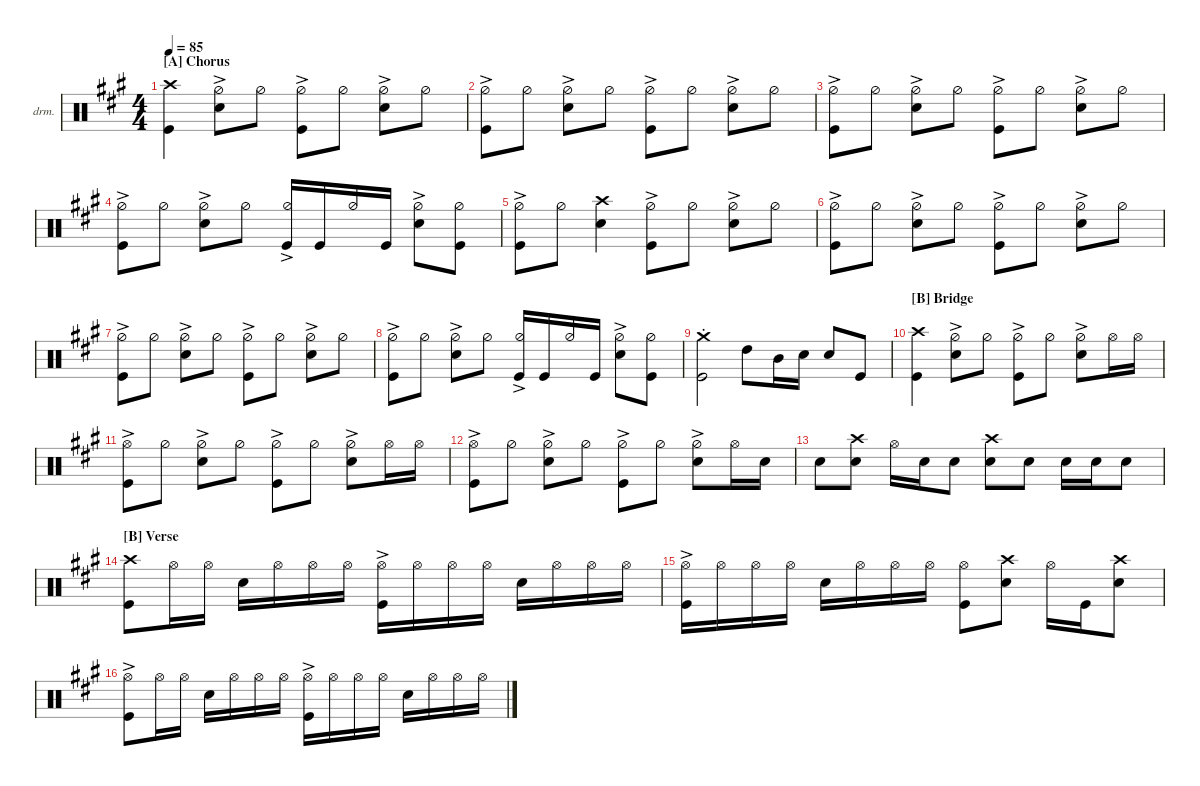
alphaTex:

\defaultSystemsLayout 4
\hideDynamics
\bracketExtendMode nobrackets
\firstSystemTrackNameOrientation horizontal
\otherSystemsTrackNameOrientation horizontal
\track ("Drums" "drm.") {instrument percussion}
\staff {score}
\articulation defaults
\ts (4 4)
\section ("A" "Chorus")
\tempo 85
\clef neutral
\ks a
("Kick (hit)"{acc forcenatural} "Crash high (hit)"{acc forcenatural}).4{dy mf beam Down} ("Snare (hit) 2"{acc forcenatural} "Hi-Hat (half)"{ac acc forcenatural}).8{beam Down} "Hi-Hat (half)"{acc forcenatural}.8{beam Down} ("Hi-Hat (half)"{ac acc forcenatural} "Kick (hit)"{acc forcenatural}).8{beam Down} "Hi-Hat (half)"{acc forcenatural}.8{beam Down} ("Snare (hit) 2"{acc forcenatural} "Hi-Hat (half)"{ac acc forcenatural}).8{beam Down} "Hi-Hat (half)"{acc forcenatural}.8{beam Down} |
("Kick (hit)"{acc forcenatural} "Hi-Hat (half)"{ac acc forcenatural}).8{beam Down} "Hi-Hat (half)"{acc forcenatural}.8{beam Down} ("Snare (hit) 2"{acc forcenatural} "Hi-Hat (half)"{ac acc forcenatural}).8{beam Down} "Hi-Hat (half)"{acc forcenatural}.8{beam Down} ("Hi-Hat (half)"{ac acc forcenatural} "Kick (hit)"{acc forcenatural}).8{beam Down} "Hi-Hat (half)"{acc forcenatural}.8{beam Down} ("Snare (hit) 2"{acc forcenatural} "Hi-Hat (half)"{ac acc forcenatural}).8{beam Down} "Hi-Hat (half)"{acc forcenatural}.8{beam Down} |
("Kick (hit)"{acc forcenatural} "Hi-Hat (half)"{ac acc forcenatural}).8{beam Down} "Hi-Hat (half)"{acc forcenatural}.8{beam Down} ("Snare (hit) 2"{acc forcenatural} "Hi-Hat (half)"{ac acc forcenatural}).8{beam Down} "Hi-Hat (half)"{acc forcenatural}.8{beam Down} ("Hi-Hat (half)"{ac acc forcenatural} "Kick (hit)"{acc forcenatural}).8{beam Down} "Hi-Hat (half)"{acc forcenatural}.8{beam Down} ("Snare (hit) 2"{acc forcenatural} "Hi-Hat (half)"{ac acc forcenatural}).8{beam Down} "Hi-Hat (half)"{acc forcenatural}.8{beam Down} |
("Kick (hit)"{acc forcenatural} "Hi-Hat (half)"{ac acc forcenatural}).8{beam Down} "Hi-Hat (half)"{acc forcenatural}.8{beam Down} ("Snare (hit) 2"{acc forcenatural} "Hi-Hat (half)"{ac acc forcenatural}).8{beam Down} "Hi-Hat (half)"{acc forcenatural}.8{beam Down} ("Hi-Hat (half)"{ac acc forcenatural} "Kick (hit)"{acc forcenatural}).16{beam Up} "Kick (hit)"{acc forcenatural}.16{beam Up} "Hi-Hat (half)"{acc forcenatural}.16{beam Up} "Kick (hit)"{acc forcenatural}.16{beam Up} ("Snare (hit) 2"{acc forcenatural} "Hi-Hat (half)"{ac acc forcenatural}).8{beam Down} ("Hi-Hat (half)"{acc forcenatural} "Kick (hit)"{acc forcenatural}).8{beam Down} |
("Kick (hit)"{acc forcenatural} "Hi-Hat (half)"{ac acc forcenatural}).8{beam Down} "Hi-Hat (half)"{acc forcenatural}.8{beam Down} ("Snare (hit) 2"{acc forcenatural} "Crash high (hit)"{acc forcenatural}).4{beam Down} ("Hi-Hat (half)"{ac acc forcenatural} "Kick (hit)"{acc forcenatural}).8{beam Down} "Hi-Hat (half)"{acc forcenatural}.8{beam Down} ("Hi-Hat (half)"{ac acc forcenatural} "Snare (hit) 2"{acc forcenatural}).8{beam Down} "Hi-Hat (half)"{acc forcenatural}.8{beam Down} |
("Kick (hit)"{acc forcenatural} "Hi-Hat (half)"{ac acc forcenatural}).8{beam Down} "Hi-Hat (half)"{acc forcenatural}.8{beam Down} ("Snare (hit) 2"{acc forcenatural} "Hi-Hat (half)"{ac acc forcenatural}).8{beam Down} "Hi-Hat (half)"{acc forcenatural}.8{beam Down} ("Hi-Hat (half)"{ac acc forcenatural} "Kick (hit)"{acc forcenatural}).8{beam Down} "Hi-Hat (half)"{acc forcenatural}.8{beam Down} ("Snare (hit) 2"{acc forcenatural} "Hi-Hat (half)"{ac acc forcenatural}).8{beam Down} "Hi-Hat (half)"{acc forcenatural}.8{beam Down} |
("Kick (hit)"{acc forcenatural} "Hi-Hat (half)"{ac acc forcenatural}).8{beam Down} "Hi-Hat (half)"{acc forcenatural}.8{beam Down} ("Snare (hit) 2"{acc forcenatural} "Hi-Hat (half)"{ac acc forcenatural}).8{beam Down} "Hi-Hat (half)"{acc forcenatural}.8{beam Down} ("Hi-Hat (half)"{ac acc forcenatural} "Kick (hit)"{acc forcenatural}).8{beam Down} "Hi-Hat (half)"{acc forcenatural}.8{beam Down} ("Snare (hit) 2"{acc forcenatural} "Hi-Hat (half)"{ac acc forcenatural}).8{beam Down} "Hi-Hat (half)"{acc forcenatural}.8{beam Down} |
("Kick (hit)"{acc forcenatural} "Hi-Hat (half)"{ac acc forcenatural}).8{beam Down} "Hi-Hat (half)"{acc forcenatural}.8{beam Down} ("Snare (hit) 2"{acc forcenatural} "Hi-Hat (half)"{ac acc forcenatural}).8{beam Down} "Hi-Hat (half)"{acc forcenatural}.8{beam Down} ("Hi-Hat (half)"{ac acc forcenatural} "Kick (hit)"{acc forcenatural}).16{beam Up} "Kick (hit)"{acc forcenatural}.16{beam Up} "Hi-Hat (half)"{acc forcenatural}.16{beam Up} "Kick (hit)"{acc forcenatural}.16{beam Up} ("Snare (hit) 2"{acc forcenatural} "Hi-Hat (half)"{ac acc forcenatural}).8{beam Down} ("Hi-Hat (half)"{acc forcenatural} "Kick (hit)"{acc forcenatural}).8{beam Down} |
("Kick (hit)"{acc forcenatural} "Crash medium (hit)"{st acc forcenatural}).2{beam Down} "High Tom (hit)"{acc forcenatural}.8{beam Down} "Mid Tom (hit)"{acc forcenatural}.16{beam Down} "Snare (hit) 2"{acc forcenatural}.16{beam Down} "Snare (hit) 2"{acc forcenatural}.8{beam Up} "Kick (hit)"{acc forcenatural}.8{beam Up} |
\section ("B" "Bridge")
("Kick (hit)"{acc forcenatural} "Crash high (hit)"{acc forcenatural}).4{beam Down} ("Snare (hit) 2"{acc forcenatural} "Hi-Hat (half)"{ac acc forcenatural}).8{beam Down} "Hi-Hat (half)"{acc forcenatural}.8{beam Down} ("Hi-Hat (half)"{ac acc forcenatural} "Kick (hit)"{acc forcenatural}).8{beam Down} "Hi-Hat (half)"{acc forcenatural}.8{beam Down} ("Snare (hit) 2"{acc forcenatural} "Hi-Hat (half)"{ac acc forcenatural}).8{beam Down} "Hi-Hat (open)"{acc forcenatural}.16{beam Down} "Hi-Hat (open)"{acc forcenatural}.16{beam Down} |
("Kick (hit)"{acc forcenatural} "Hi-Hat (open)"{ac acc forcenatural}).8{beam Down} "Hi-Hat (half)"{acc forcenatural}.8{beam Down} ("Snare (hit) 2"{acc forcenatural} "Hi-Hat (half)"{ac acc forcenatural}).8{beam Down} "Hi-Hat (half)"{acc forcenatural}.8{beam Down} ("Hi-Hat (half)"{ac acc forcenatural} "Kick (hit)"{acc forcenatural}).8{beam Down} "Hi-Hat (half)"{acc forcenatural}.8{beam Down} ("Snare (hit) 2"{acc forcenatural} "Hi-Hat (half)"{ac acc forcenatural}).8{beam Down} "Hi-Hat (open)"{acc forcenatural}.16{beam Down} "Hi-Hat (open)"{acc forcenatural}.16{beam Down} |
("Kick (hit)"{acc forcenatural} "Hi-Hat (open)"{ac acc forcenatural}).8{beam Down} "Hi-Hat (half)"{acc forcenatural}.8{beam Down} ("Snare (hit) 2"{acc forcenatural} "Hi-Hat (half)"{ac acc forcenatural}).8{beam Down} "Hi-Hat (half)"{acc forcenatural}.8{beam Down} ("Hi-Hat (half)"{ac acc forcenatural} "Kick (hit)"{acc forcenatural}).8{beam Down} "Hi-Hat (half)"{acc forcenatural}.8{beam Down} ("Snare (hit) 2"{acc forcenatural} "Hi-Hat (half)"{ac acc forcenatural}).8{beam Down} "Hi-Hat (open)"{acc forcenatural}.16{beam Down} "Snare (hit) 2"{acc forcenatural}.16{beam Down} |
"Snare (hit) 2"{acc forcenatural}.8{beam Down} ("Snare (hit) 2"{acc forcenatural} "Crash high (hit)"{acc forcenatural}).8{beam Down} "Hi-Hat (open)"{acc forcenatural}.16{beam Down} "Snare (hit) 2"{acc forcenatural}.16{beam Down} "Snare (hit) 2"{acc forcenatural}.8{beam Down} ("Snare (hit) 2"{acc forcenatural} "Crash high (hit)"{acc forcenatural}).8{beam Down} "Snare (hit) 2"{acc forcenatural}.8{beam Down} "Snare (hit) 2"{acc forcenatural}.16{beam Down} "Snare (hit) 2"{acc forcenatural}.16{beam Down} "Snare (hit) 2"{acc forcenatural}.8{beam Down} |
\section ("B" "Verse")
("Kick (hit)"{acc forcenatural} "Crash high (hit)"{acc forcenatural}).8{beam Down} "Hi-Hat (open)"{acc forcenatural}.16{beam Down} "Hi-Hat (open)"{acc forcenatural}.16{beam Down} "Snare (hit) 2"{acc forcenatural}.16{beam Down} "Hi-Hat (open)"{acc forcenatural}.16{beam Down} "Hi-Hat (open)"{acc forcenatural}.16{beam Down} "Hi-Hat (open)"{acc forcenatural}.16{beam Down} ("Hi-Hat (open)"{ac acc forcenatural} "Kick (hit)"{acc forcenatural}).16{beam Down} "Hi-Hat (open)"{acc forcenatural}.16{beam Down} "Hi-Hat (open)"{acc forcenatural}.16{beam Down} "Hi-Hat (open)"{acc forcenatural}.16{beam Down} "Snare (hit) 2"{acc forcenatural}.16{beam Down} "Hi-Hat (open)"{acc forcenatural}.16{beam Down} "Hi-Hat (open)"{acc forcenatural}.16{beam Down} "Hi-Hat (open)"{acc forcenatural}.16{beam Down} |
("Kick (hit)"{acc forcenatural} "Hi-Hat (open)"{ac acc forcenatural}).16{beam Down} "Hi-Hat (open)"{acc forcenatural}.16{beam Down} "Hi-Hat (open)"{acc forcenatural}.16{beam Down} "Hi-Hat (open)"{acc forcenatural}.16{beam Down} "Snare (hit) 2"{acc forcenatural}.16{beam Down} "Hi-Hat (open)"{acc forcenatural}.16{beam Down} "Hi-Hat (open)"{acc forcenatural}.16{beam Down} "Hi-Hat (open)"{acc forcenatural}.16{beam Down} ("Hi-Hat (open)"{acc forcenatural} "Kick (hit)"{acc forcenatural}).8{beam Down} ("Snare (hit) 2"{acc forcenatural} "Crash high (hit)"{acc forcenatural}).8{beam Down} "Hi-Hat (open)"{acc forcenatural}.16{beam Down} "Kick (hit)"{acc forcenatural}.16{beam Down} ("Snare (hit) 2"{acc forcenatural} "Crash high (hit)"{acc forcenatural}).8{beam Down} |
("Kick (hit)"{acc forcenatural} "Hi-Hat (open)"{ac acc forcenatural}).8{beam Down} "Hi-Hat (open)"{acc forcenatural}.16{beam Down} "Hi-Hat (open)"{acc forcenatural}.16{beam Down} "Snare (hit) 2"{acc forcenatural}.16{beam Down} "Hi-Hat (open)"{acc forcenatural}.16{beam Down} "Hi-Hat (open)"{acc forcenatural}.16{beam Down} "Hi-Hat (open)"{acc forcenatural}.16{beam Down} ("Hi-Hat (open)"{ac acc forcenatural} "Kick (hit)"{acc forcenatural}).16{beam Down} "Hi-Hat (open)"{acc forcenatural}.16{beam Down} "Hi-Hat (open)"{acc forcenatural}.16{beam Down} "Hi-Hat (open)"{acc forcenatural}.16{beam Down} "Snare (hit) 2"{acc forcenatural}.16{beam Down} "Hi-Hat (open)"{acc forcenatural}.16{beam Down} "Hi-Hat (open)"{acc forcenatural}.16{beam Down} "Hi-Hat (open)"{acc forcenatural}.16{beam Down}
